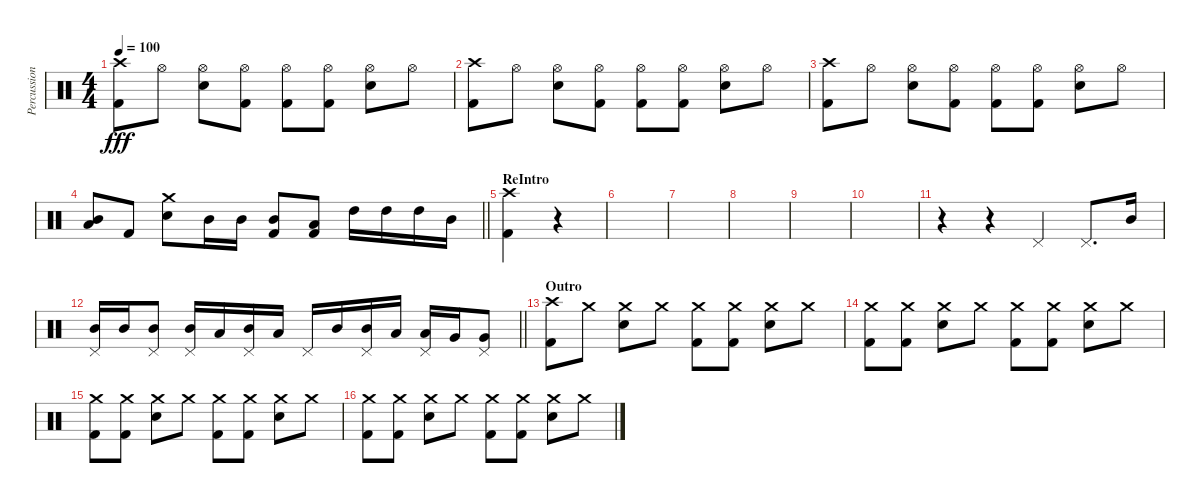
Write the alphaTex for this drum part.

\track ("Percussion" "Percussion") {instrument percussion}
\staff {score}
\articulation defaults
\ts (4 4)
\tempo 100
\clef neutral
\ks c
("Crash high (hit)" "Kick (hit) 2").8{dy fff} "Hi-Hat (open)".8 ("Hi-Hat (open)" "Electric Snare (hit)").8 ("Hi-Hat (open)" "Kick (hit) 2").8 ("Hi-Hat (open)" "Kick (hit) 2").8 ("Hi-Hat (open)" "Kick (hit) 2").8 ("Hi-Hat (open)" "Electric Snare (hit)").8 "Hi-Hat (open)".8 |
("Crash high (hit)" "Kick (hit) 2").8 "Hi-Hat (open)".8 ("Hi-Hat (open)" "Electric Snare (hit)").8 ("Hi-Hat (open)" "Kick (hit) 2").8 ("Hi-Hat (open)" "Kick (hit) 2").8 ("Hi-Hat (open)" "Kick (hit) 2").8 ("Hi-Hat (open)" "Electric Snare (hit)").8 "Hi-Hat (open)".8 |
("Crash high (hit)" "Kick (hit) 2").8 "Hi-Hat (open)".8 ("Hi-Hat (open)" "Electric Snare (hit)").8 ("Hi-Hat (open)" "Kick (hit) 2").8 ("Hi-Hat (open)" "Kick (hit) 2").8 ("Hi-Hat (open)" "Kick (hit) 2").8 ("Hi-Hat (open)" "Electric Snare (hit)").8 "Hi-Hat (open)".8 |
\barLineRight lightlight
("Mid Tom (hit)" "Low Tom (hit)").8 "Kick (hit) 2".8 ("Crash medium (hit)" "Electric Snare (hit)").8 "Mid Tom (hit)".16 "Mid Tom (hit)".16 ("Mid Tom (hit)" "Kick (hit) 2").8 ("Low Tom (hit)" "Kick (hit) 2").8 "High Tom (hit)".16 "High Tom (hit)".16 "High Tom (hit)".16 "Mid Tom (hit)".16 |
\section ("" "ReIntro")
("Crash high (hit)" "Kick (hit) 2").4 r.4 |
|
|
|
|
|
r.4 r.4 "Pedal Hi-Hat (hit)".4 "Pedal Hi-Hat (hit)".8{d} "Mid Tom (hit)".16 |
\barLineRight lightlight
("Mid Tom (hit)" "Pedal Hi-Hat (hit)").16 "Mid Tom (hit)".16 ("Mid Tom (hit)" "Pedal Hi-Hat (hit)").8 ("Mid Tom (hit)" "Pedal Hi-Hat (hit)").16 "Low Tom (hit)".16 ("Mid Tom (hit)" "Pedal Hi-Hat (hit)").16 "Low Tom (hit)".16 "Pedal Hi-Hat (hit)".16 "Mid Tom (hit)".16 ("Mid Tom (hit)" "Pedal Hi-Hat (hit)").16 "Low Tom (hit)".16 ("Low Tom (hit)" "Pedal Hi-Hat (hit)").16 "Very Low Tom (hit)".16 ("Very Low Tom (hit)" "Pedal Hi-Hat (hit)").8 |
\section ("" "Outro")
("Crash high (hit)" "Kick (hit) 2").8 "Crash medium (hit)".8 ("Crash medium (hit)" "Electric Snare (hit)").8 "Crash medium (hit)".8 ("Crash medium (hit)" "Kick (hit) 2").8 ("Crash medium (hit)" "Kick (hit) 2").8 ("Crash medium (hit)" "Electric Snare (hit)").8 "Crash medium (hit)".8 |
("Crash medium (hit)" "Kick (hit) 2").8 ("Crash medium (hit)" "Kick (hit) 2").8 ("Crash medium (hit)" "Electric Snare (hit)").8 "Crash medium (hit)".8 ("Crash medium (hit)" "Kick (hit) 2").8 ("Crash medium (hit)" "Kick (hit) 2").8 ("Crash medium (hit)" "Electric Snare (hit)").8 "Crash medium (hit)".8 |
("Crash medium (hit)" "Kick (hit) 2").8 ("Crash medium (hit)" "Kick (hit) 2").8 ("Crash medium (hit)" "Electric Snare (hit)").8 "Crash medium (hit)".8 ("Crash medium (hit)" "Kick (hit) 2").8 ("Crash medium (hit)" "Kick (hit) 2").8 ("Crash medium (hit)" "Electric Snare (hit)").8 "Crash medium (hit)".8 |
("Crash medium (hit)" "Kick (hit) 2").8 ("Crash medium (hit)" "Kick (hit) 2").8 ("Crash medium (hit)" "Electric Snare (hit)").8 "Crash medium (hit)".8 ("Crash medium (hit)" "Kick (hit) 2").8 ("Crash medium (hit)" "Kick (hit) 2").8 ("Crash medium (hit)" "Electric Snare (hit)").8 "Crash medium (hit)".8
